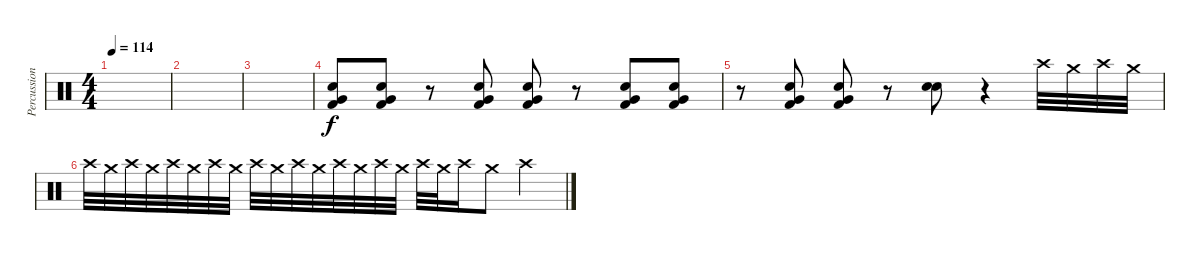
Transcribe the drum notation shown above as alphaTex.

\track ("Percussion" "Percussion") {instrument percussion}
\staff {score}
\articulation defaults
\ts (4 4)
\tempo 114
\clef neutral
\ks c
|
|
|
("Electric Snare (hit)" "Very Low Tom (hit)" "Kick (hit) 2").8{dy f} ("Electric Snare (hit)" "Very Low Tom (hit)" "Kick (hit) 2").8 r.8 ("Electric Snare (hit)" "Very Low Tom (hit)" "Kick (hit) 2").8 ("Electric Snare (hit)" "Very Low Tom (hit)" "Kick (hit) 2").8 r.8 ("Electric Snare (hit)" "Very Low Tom (hit)" "Kick (hit) 2").8 ("Electric Snare (hit)" "Very Low Tom (hit)" "Kick (hit) 2").8 |
r.8 ("Electric Snare (hit)" "Very Low Tom (hit)" "Kick (hit) 2").8 ("Electric Snare (hit)" "Very Low Tom (hit)" "Kick (hit) 2").8 r.8 ("Electric Snare (hit)" "Electric Snare (hit)").8 r.4 "Crash high (hit)".32 "Crash medium (hit)".32 "Crash high (hit)".32 "Crash medium (hit)".32 |
"Crash high (hit)".32 "Crash medium (hit)".32 "Crash high (hit)".32 "Crash medium (hit)".32 "Crash high (hit)".32 "Crash medium (hit)".32 "Crash high (hit)".32 "Crash medium (hit)".32 "Crash high (hit)".32 "Crash medium (hit)".32 "Crash high (hit)".32 "Crash medium (hit)".32 "Crash high (hit)".32 "Crash medium (hit)".32 "Crash high (hit)".32 "Crash medium (hit)".32 "Crash high (hit)".32 "Crash medium (hit)".32 "Crash high (hit)".16 "Crash medium (hit)".8 "Crash high (hit)".4
